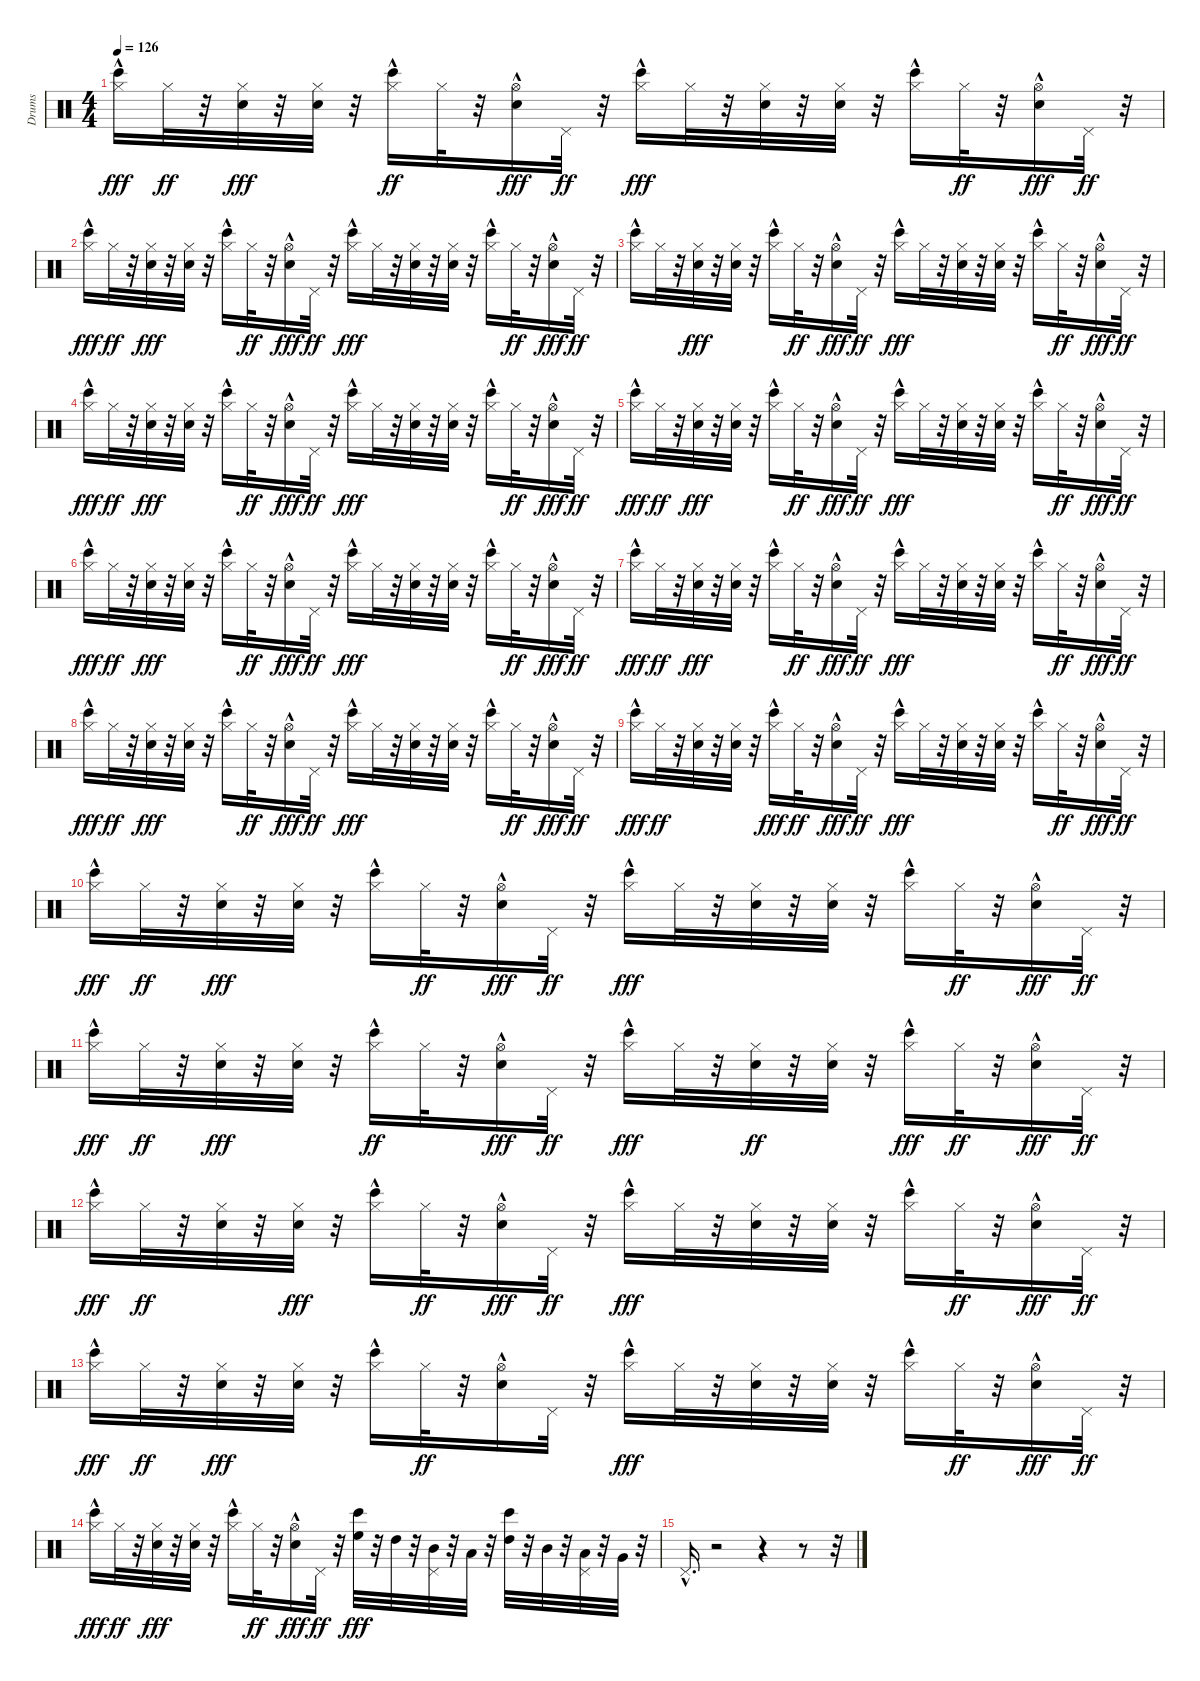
\track ("Drums" "Drums") {instrument percussion}
\staff {score}
\articulation defaults
\ts (4 4)
\tempo 126
\clef neutral
\ks c
("Hi-Hat (closed)" "Bongo High (hit)"{hac}).16{dy fff} "Hi-Hat (closed)".32{dy ff} r.32 ("Hi-Hat (closed)" "Electric Snare (hit)").32{dy fff} r.32 ("Hi-Hat (closed)" "Electric Snare (hit)").32 r.32 ("Bongo High (hit)"{hac} "Hi-Hat (closed)").16{dy ff} "Hi-Hat (closed)".32 r.32 ("Hi-Hat (open)" "Electric Snare (hit)"{hac}).16{dy fff} "Pedal Hi-Hat (hit)".32{dy ff} r.32 ("Hi-Hat (closed)" "Bongo High (hit)"{hac}).16{dy fff} "Hi-Hat (closed)".32 r.32 ("Hi-Hat (closed)" "Electric Snare (hit)").32 r.32 ("Hi-Hat (closed)" "Electric Snare (hit)").32 r.32 ("Hi-Hat (closed)" "Bongo High (hit)"{hac}).16 "Hi-Hat (closed)".32{dy ff} r.32 ("Hi-Hat (open)" "Electric Snare (hit)"{hac}).16{dy fff} "Pedal Hi-Hat (hit)".32{dy ff} r.32 |
("Hi-Hat (closed)" "Bongo High (hit)"{hac}).16{dy fff} "Hi-Hat (closed)".32{dy ff} r.32 ("Hi-Hat (closed)" "Electric Snare (hit)").32{dy fff} r.32 ("Hi-Hat (closed)" "Electric Snare (hit)").32 r.32 ("Hi-Hat (closed)" "Bongo High (hit)"{hac}).16 "Hi-Hat (closed)".32{dy ff} r.32 ("Hi-Hat (open)" "Electric Snare (hit)"{hac}).16{dy fff} "Pedal Hi-Hat (hit)".32{dy ff} r.32 ("Hi-Hat (closed)" "Bongo High (hit)"{hac}).16{dy fff} "Hi-Hat (closed)".32 r.32 ("Hi-Hat (closed)" "Electric Snare (hit)").32 r.32 ("Hi-Hat (closed)" "Electric Snare (hit)").32 r.32 ("Hi-Hat (closed)" "Bongo High (hit)"{hac}).16 "Hi-Hat (closed)".32{dy ff} r.32 ("Hi-Hat (open)" "Electric Snare (hit)"{hac}).16{dy fff} "Pedal Hi-Hat (hit)".32{dy ff} r.32 |
("Bongo High (hit)"{hac} "Hi-Hat (closed)").16 "Hi-Hat (closed)".32 r.32 ("Hi-Hat (closed)" "Electric Snare (hit)").32{dy fff} r.32 ("Hi-Hat (closed)" "Electric Snare (hit)").32 r.32 ("Hi-Hat (closed)" "Bongo High (hit)"{hac}).16 "Hi-Hat (closed)".32{dy ff} r.32 ("Hi-Hat (open)" "Electric Snare (hit)"{hac}).16{dy fff} "Pedal Hi-Hat (hit)".32{dy ff} r.32 ("Bongo High (hit)"{hac} "Hi-Hat (closed)").16{dy fff} "Hi-Hat (closed)".32 r.32 ("Hi-Hat (closed)" "Electric Snare (hit)").32 r.32 ("Hi-Hat (closed)" "Electric Snare (hit)").32 r.32 ("Hi-Hat (closed)" "Bongo High (hit)"{hac}).16 "Hi-Hat (closed)".32{dy ff} r.32 ("Hi-Hat (open)" "Electric Snare (hit)"{hac}).16{dy fff} "Pedal Hi-Hat (hit)".32{dy ff} r.32 |
("Hi-Hat (closed)" "Bongo High (hit)"{hac}).16{dy fff} "Hi-Hat (closed)".32{dy ff} r.32 ("Hi-Hat (closed)" "Electric Snare (hit)").32{dy fff} r.32 ("Hi-Hat (closed)" "Electric Snare (hit)").32 r.32 ("Hi-Hat (closed)" "Bongo High (hit)"{hac}).16 "Hi-Hat (closed)".32{dy ff} r.32 ("Hi-Hat (open)" "Electric Snare (hit)"{hac}).16{dy fff} "Pedal Hi-Hat (hit)".32{dy ff} r.32 ("Hi-Hat (closed)" "Bongo High (hit)"{hac}).16{dy fff} "Hi-Hat (closed)".32 r.32 ("Hi-Hat (closed)" "Electric Snare (hit)").32 r.32 ("Hi-Hat (closed)" "Electric Snare (hit)").32 r.32 ("Bongo High (hit)"{hac} "Hi-Hat (closed)").16 "Hi-Hat (closed)".32{dy ff} r.32 ("Hi-Hat (open)" "Electric Snare (hit)"{hac}).16{dy fff} "Pedal Hi-Hat (hit)".32{dy ff} r.32 |
("Hi-Hat (closed)" "Bongo High (hit)"{hac}).16{dy fff} "Hi-Hat (closed)".32{dy ff} r.32 ("Hi-Hat (closed)" "Electric Snare (hit)").32{dy fff} r.32 ("Hi-Hat (closed)" "Electric Snare (hit)").32 r.32 ("Hi-Hat (closed)" "Bongo High (hit)"{hac}).16 "Hi-Hat (closed)".32{dy ff} r.32 ("Hi-Hat (open)" "Electric Snare (hit)"{hac}).16{dy fff} "Pedal Hi-Hat (hit)".32{dy ff} r.32 ("Hi-Hat (closed)" "Bongo High (hit)"{hac}).16{dy fff} "Hi-Hat (closed)".32 r.32 ("Hi-Hat (closed)" "Electric Snare (hit)").32 r.32 ("Hi-Hat (closed)" "Electric Snare (hit)").32 r.32 ("Bongo High (hit)"{hac} "Hi-Hat (closed)").16 "Hi-Hat (closed)".32{dy ff} r.32 ("Hi-Hat (open)" "Electric Snare (hit)"{hac}).16{dy fff} "Pedal Hi-Hat (hit)".32{dy ff} r.32 |
("Hi-Hat (closed)" "Bongo High (hit)"{hac}).16{dy fff} "Hi-Hat (closed)".32{dy ff} r.32 ("Hi-Hat (closed)" "Electric Snare (hit)").32{dy fff} r.32 ("Hi-Hat (closed)" "Electric Snare (hit)").32 r.32 ("Hi-Hat (closed)" "Bongo High (hit)"{hac}).16 "Hi-Hat (closed)".32{dy ff} r.32 ("Hi-Hat (open)" "Electric Snare (hit)"{hac}).16{dy fff} "Pedal Hi-Hat (hit)".32{dy ff} r.32 ("Bongo High (hit)"{hac} "Hi-Hat (closed)").16{dy fff} "Hi-Hat (closed)".32 r.32 ("Hi-Hat (closed)" "Electric Snare (hit)").32 r.32 ("Hi-Hat (closed)" "Electric Snare (hit)").32 r.32 ("Hi-Hat (closed)" "Bongo High (hit)"{hac}).16 "Hi-Hat (closed)".32{dy ff} r.32 ("Hi-Hat (open)" "Electric Snare (hit)"{hac}).16{dy fff} "Pedal Hi-Hat (hit)".32{dy ff} r.32 |
("Hi-Hat (closed)" "Bongo High (hit)"{hac}).16{dy fff} "Hi-Hat (closed)".32{dy ff} r.32 ("Hi-Hat (closed)" "Electric Snare (hit)").32{dy fff} r.32 ("Hi-Hat (closed)" "Electric Snare (hit)").32 r.32 ("Hi-Hat (closed)" "Bongo High (hit)"{hac}).16 "Hi-Hat (closed)".32{dy ff} r.32 ("Hi-Hat (open)" "Electric Snare (hit)"{hac}).16{dy fff} "Pedal Hi-Hat (hit)".32{dy ff} r.32 ("Hi-Hat (closed)" "Bongo High (hit)"{hac}).16{dy fff} "Hi-Hat (closed)".32 r.32 ("Hi-Hat (closed)" "Electric Snare (hit)").32 r.32 ("Hi-Hat (closed)" "Electric Snare (hit)").32 r.32 ("Hi-Hat (closed)" "Bongo High (hit)"{hac}).16 "Hi-Hat (closed)".32{dy ff} r.32 ("Hi-Hat (open)" "Electric Snare (hit)"{hac}).16{dy fff} "Pedal Hi-Hat (hit)".32{dy ff} r.32 |
("Hi-Hat (closed)" "Bongo High (hit)"{hac}).16{dy fff} "Hi-Hat (closed)".32{dy ff} r.32 ("Hi-Hat (closed)" "Electric Snare (hit)").32{dy fff} r.32 ("Hi-Hat (closed)" "Electric Snare (hit)").32 r.32 ("Hi-Hat (closed)" "Bongo High (hit)"{hac}).16 "Hi-Hat (closed)".32{dy ff} r.32 ("Hi-Hat (open)" "Electric Snare (hit)"{hac}).16{dy fff} "Pedal Hi-Hat (hit)".32{dy ff} r.32 ("Hi-Hat (closed)" "Bongo High (hit)"{hac}).16{dy fff} "Hi-Hat (closed)".32 r.32 ("Hi-Hat (closed)" "Electric Snare (hit)").32 r.32 ("Hi-Hat (closed)" "Electric Snare (hit)").32 r.32 ("Hi-Hat (closed)" "Bongo High (hit)"{hac}).16 "Hi-Hat (closed)".32{dy ff} r.32 ("Hi-Hat (open)" "Electric Snare (hit)"{hac}).16{dy fff} "Pedal Hi-Hat (hit)".32{dy ff} r.32 |
("Hi-Hat (closed)" "Bongo High (hit)"{hac}).16{dy fff} "Hi-Hat (closed)".32{dy ff} r.32 ("Electric Snare (hit)" "Hi-Hat (closed)").32 r.32 ("Electric Snare (hit)" "Hi-Hat (closed)").32 r.32 ("Hi-Hat (closed)" "Bongo High (hit)"{hac}).16{dy fff} "Hi-Hat (closed)".32{dy ff} r.32 ("Hi-Hat (open)" "Electric Snare (hit)"{hac}).16{dy fff} "Pedal Hi-Hat (hit)".32{dy ff} r.32 ("Hi-Hat (closed)" "Bongo High (hit)"{hac}).16{dy fff} "Hi-Hat (closed)".32 r.32 ("Hi-Hat (closed)" "Electric Snare (hit)").32 r.32 ("Hi-Hat (closed)" "Electric Snare (hit)").32 r.32 ("Hi-Hat (closed)" "Bongo High (hit)"{hac}).16 "Hi-Hat (closed)".32{dy ff} r.32 ("Hi-Hat (open)" "Electric Snare (hit)"{hac}).16{dy fff} "Pedal Hi-Hat (hit)".32{dy ff} r.32 |
("Hi-Hat (closed)" "Bongo High (hit)"{hac}).16{dy fff} "Hi-Hat (closed)".32{dy ff} r.32 ("Hi-Hat (closed)" "Electric Snare (hit)").32{dy fff} r.32 ("Hi-Hat (closed)" "Electric Snare (hit)").32 r.32 ("Hi-Hat (closed)" "Bongo High (hit)"{hac}).16 "Hi-Hat (closed)".32{dy ff} r.32 ("Hi-Hat (open)" "Electric Snare (hit)"{hac}).16{dy fff} "Pedal Hi-Hat (hit)".32{dy ff} r.32 ("Hi-Hat (closed)" "Bongo High (hit)"{hac}).16{dy fff} "Hi-Hat (closed)".32 r.32 ("Hi-Hat (closed)" "Electric Snare (hit)").32 r.32 ("Hi-Hat (closed)" "Electric Snare (hit)").32 r.32 ("Bongo High (hit)"{hac} "Hi-Hat (closed)").16 "Hi-Hat (closed)".32{dy ff} r.32 ("Hi-Hat (open)" "Electric Snare (hit)"{hac}).16{dy fff} "Pedal Hi-Hat (hit)".32{dy ff} r.32 |
("Hi-Hat (closed)" "Bongo High (hit)"{hac}).16{dy fff} "Hi-Hat (closed)".32{dy ff} r.32 ("Hi-Hat (closed)" "Electric Snare (hit)").32{dy fff} r.32 ("Hi-Hat (closed)" "Electric Snare (hit)").32 r.32 ("Bongo High (hit)"{hac} "Hi-Hat (closed)").16{dy ff} "Hi-Hat (closed)".32 r.32 ("Hi-Hat (open)" "Electric Snare (hit)"{hac}).16{dy fff} "Pedal Hi-Hat (hit)".32{dy ff} r.32 ("Hi-Hat (closed)" "Bongo High (hit)"{hac}).16{dy fff} "Hi-Hat (closed)".32 r.32 ("Electric Snare (hit)" "Hi-Hat (closed)").32{dy ff} r.32 ("Electric Snare (hit)" "Hi-Hat (closed)").32 r.32 ("Hi-Hat (closed)" "Bongo High (hit)"{hac}).16{dy fff} "Hi-Hat (closed)".32{dy ff} r.32 ("Hi-Hat (open)" "Electric Snare (hit)"{hac}).16{dy fff} "Pedal Hi-Hat (hit)".32{dy ff} r.32 |
("Hi-Hat (closed)" "Bongo High (hit)"{hac}).16{dy fff} "Hi-Hat (closed)".32{dy ff} r.32 ("Electric Snare (hit)" "Hi-Hat (closed)").32 r.32 ("Hi-Hat (closed)" "Electric Snare (hit)").32{dy fff} r.32 ("Hi-Hat (closed)" "Bongo High (hit)"{hac}).16 "Hi-Hat (closed)".32{dy ff} r.32 ("Hi-Hat (open)" "Electric Snare (hit)"{hac}).16{dy fff} "Pedal Hi-Hat (hit)".32{dy ff} r.32 ("Hi-Hat (closed)" "Bongo High (hit)"{hac}).16{dy fff} "Hi-Hat (closed)".32 r.32 ("Hi-Hat (closed)" "Electric Snare (hit)").32 r.32 ("Hi-Hat (closed)" "Electric Snare (hit)").32 r.32 ("Hi-Hat (closed)" "Bongo High (hit)"{hac}).16 "Hi-Hat (closed)".32{dy ff} r.32 ("Hi-Hat (open)" "Electric Snare (hit)"{hac}).16{dy fff} "Pedal Hi-Hat (hit)".32{dy ff} r.32 |
("Hi-Hat (closed)" "Bongo High (hit)"{hac}).16{dy fff} "Hi-Hat (closed)".32{dy ff} r.32 ("Hi-Hat (closed)" "Electric Snare (hit)").32{dy fff} r.32 ("Hi-Hat (closed)" "Electric Snare (hit)").32 r.32 ("Hi-Hat (closed)" "Bongo High (hit)"{hac}).16 "Hi-Hat (closed)".32{dy ff} r.32 ("Electric Snare (hit)"{hac} "Hi-Hat (open)").16 "Pedal Hi-Hat (hit)".32 r.32 ("Hi-Hat (closed)" "Bongo High (hit)"{hac}).16{dy fff} "Hi-Hat (closed)".32 r.32 ("Hi-Hat (closed)" "Electric Snare (hit)").32 r.32 ("Hi-Hat (closed)" "Electric Snare (hit)").32 r.32 ("Hi-Hat (closed)" "Bongo High (hit)"{hac}).16 "Hi-Hat (closed)".32{dy ff} r.32 ("Hi-Hat (open)" "Electric Snare (hit)"{hac}).16{dy fff} "Pedal Hi-Hat (hit)".32{dy ff} r.32 |
("Hi-Hat (closed)" "Bongo High (hit)"{hac}).16{dy fff} "Hi-Hat (closed)".32{dy ff} r.32 ("Hi-Hat (closed)" "Electric Snare (hit)").32{dy fff} r.32 ("Hi-Hat (closed)" "Electric Snare (hit)").32 r.32 ("Hi-Hat (closed)" "Bongo High (hit)"{hac}).16 "Hi-Hat (closed)".32{dy ff} r.32 ("Hi-Hat (open)" "Electric Snare (hit)"{hac}).16{dy fff} "Pedal Hi-Hat (hit)".32{dy ff} r.32 ("Bongo High (hit)" "High Floor Tom (hit)").32{dy fff} r.32 "High Tom (hit)".32 r.32 ("Mid Tom (hit)" "Pedal Hi-Hat (hit)").32 r.32 "Low Tom (hit)".32 r.32 ("High Tom (hit)" "Bongo High (hit)").32 r.32 "Mid Tom (hit)".32 r.32 ("Low Tom (hit)" "Pedal Hi-Hat (hit)").32 r.32 "Very Low Tom (hit)".32 r.32 |
"Pedal Hi-Hat (hit)"{hac}.16{d} r.2 r.4 r.8 r.32
